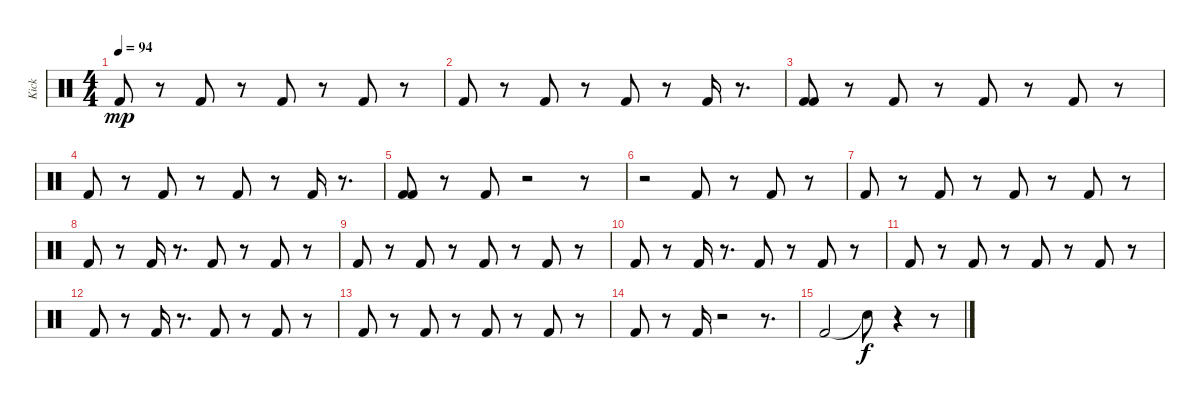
\track ("Kick" "Kick") {instrument percussion}
\staff {score}
\articulation defaults
\ts (4 4)
\tempo 94
\clef neutral
\ks c "Kick (hit) 2".8{dy mp}
r.8 "Kick (hit) 2".8 r.8 "Kick (hit) 2".8 r.8 "Kick (hit) 2".8 r.8 |
"Kick (hit) 2".8 r.8 "Kick (hit) 2".8 r.8 "Kick (hit) 2".8 r.8 "Kick (hit) 2".16 r.8{d} |
("Kick (hit) 2" "Kick (hit) 2").8 r.8 "Kick (hit) 2".8 r.8 "Kick (hit) 2".8 r.8 "Kick (hit) 2".8 r.8 |
"Kick (hit) 2".8 r.8 "Kick (hit) 2".8 r.8 "Kick (hit) 2".8 r.8 "Kick (hit) 2".16 r.8{d} |
("Kick (hit) 2" "Kick (hit) 2").8 r.8 "Kick (hit) 2".8 r.2 r.8 |
r.2 "Kick (hit) 2".8 r.8 "Kick (hit) 2".8 r.8 |
"Kick (hit) 2".8 r.8 "Kick (hit) 2".8 r.8 "Kick (hit) 2".8 r.8 "Kick (hit) 2".8 r.8 |
"Kick (hit) 2".8 r.8 "Kick (hit) 2".16 r.8{d} "Kick (hit) 2".8 r.8 "Kick (hit) 2".8 r.8 |
"Kick (hit) 2".8 r.8 "Kick (hit) 2".8 r.8 "Kick (hit) 2".8 r.8 "Kick (hit) 2".8 r.8 |
"Kick (hit) 2".8 r.8 "Kick (hit) 2".16 r.8{d} "Kick (hit) 2".8 r.8 "Kick (hit) 2".8 r.8 |
"Kick (hit) 2".8 r.8 "Kick (hit) 2".8 r.8 "Kick (hit) 2".8 r.8 "Kick (hit) 2".8 r.8 |
"Kick (hit) 2".8 r.8 "Kick (hit) 2".16 r.8{d} "Kick (hit) 2".8 r.8 "Kick (hit) 2".8 r.8 |
"Kick (hit) 2".8 r.8 "Kick (hit) 2".8 r.8 "Kick (hit) 2".8 r.8 "Kick (hit) 2".8 r.8 |
"Kick (hit) 2".8 r.8 "Kick (hit) 2".16 r.2 r.8{d} |
"Kick (hit) 2".2 "Snare (hit)"{t}.8{dy f} r.4 r.8
